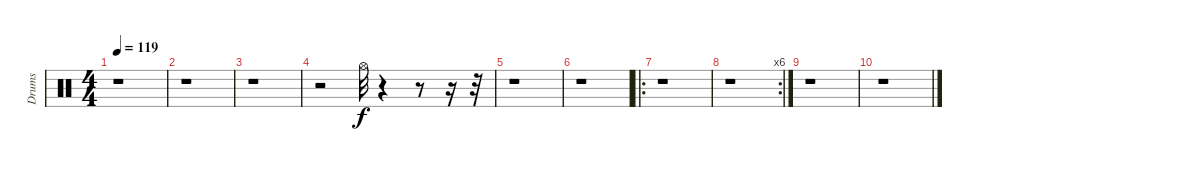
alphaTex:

\track ("Drums" "Drums") {instrument percussion}
\staff {score}
\articulation defaults
\ts (4 4)
\tempo 119
\clef neutral
\ks c
r.1{dy f} |
r.1 |
r.1 |
r.2 "Hi-Hat (open)".32 r.4 r.8 r.16 r.32 |
r.1 |
r.1 |
\ro
r.1 |
\rc 6
r.1 |
r.1 |
r.1
